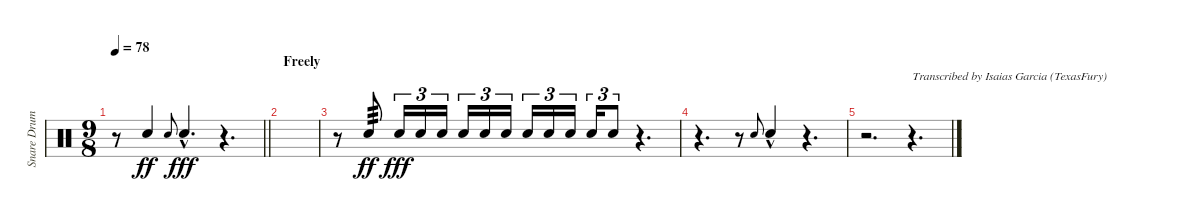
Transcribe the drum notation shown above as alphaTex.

\track ("Snare Drum" "Snare Drum") {instrument percussion}
\staff {score}
\articulation defaults
\ts (9 8)
\tempo 78
\clef neutral
\barLineRight lightlight
\ks c
r.8{dy ff} "Electric Snare (hit)".4{beam Up} "Electric Snare (hit)".8{gr onbeat} "Electric Snare (hit)"{hac}.4{d dy fff beam Up} r.4{d} |
\section ("" "Freely")
|
r.8 "Electric Snare (hit)".8{tp 3 dy ff beam Up} "Electric Snare (hit)".16{tu (3 2) dy fff beam Up} "Electric Snare (hit)".16{tu (3 2) beam Up} "Electric Snare (hit)".16{tu (3 2) beam Up} "Electric Snare (hit)".16{tu (3 2) beam Up} "Electric Snare (hit)".16{tu (3 2) beam Up} "Electric Snare (hit)".16{tu (3 2) beam Up beam splitsecondary} "Electric Snare (hit)".16{tu (3 2) beam Up} "Electric Snare (hit)".16{tu (3 2) beam Up} "Electric Snare (hit)".16{tu (3 2) beam Up beam splitsecondary} "Electric Snare (hit)".16{tu (3 2) beam Up} "Electric Snare (hit)".8{tu (3 2) beam Up} r.4{d} |
r.4{d} r.8 "Electric Snare (hit)".8{gr onbeat} "Electric Snare (hit)"{hac}.4{beam Up} r.4{d} |
r.2{d} r.4{d txt "Transcribed by Isaias Garcia (TexasFury)"}
